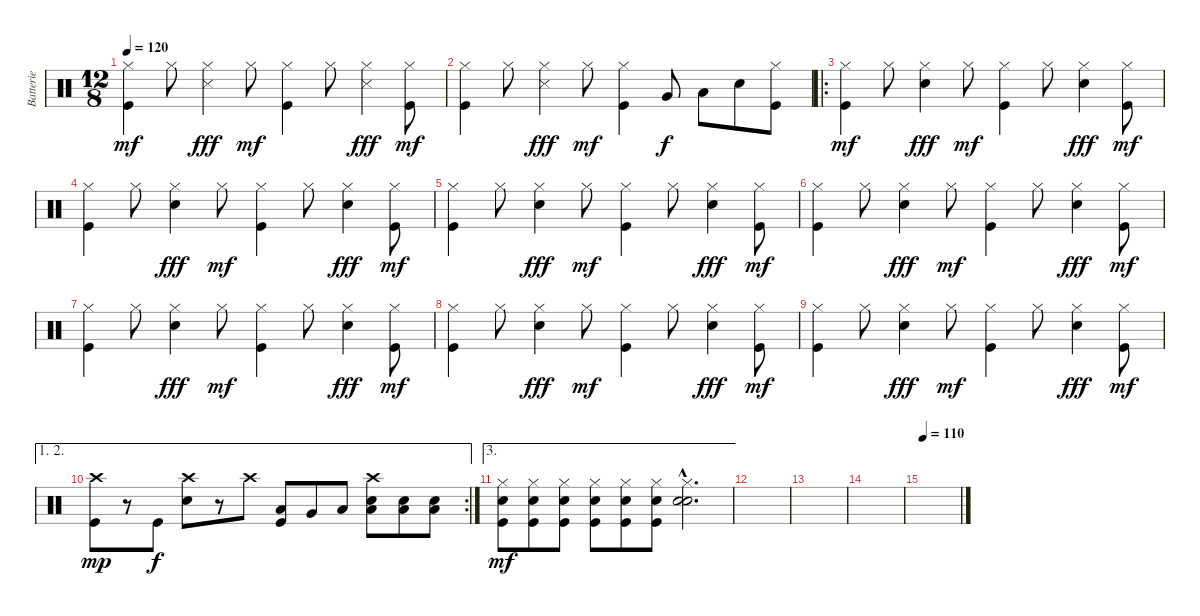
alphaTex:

\track ("Batterie" "Batterie") {instrument percussion}
\staff {score}
\articulation defaults
\ts (12 8)
\tempo 120
\clef neutral
\ks c
("Hi-Hat (closed)" "Kick (hit)").4{dy mf} "Hi-Hat (closed)".8 ("Hi-Hat (closed)" "Snare (side stick) 3").4{dy fff} "Hi-Hat (closed)".8{dy mf} ("Hi-Hat (closed)" "Kick (hit)").4 "Hi-Hat (closed)".8 ("Hi-Hat (closed)" "Snare (side stick) 3").4{dy fff} ("Hi-Hat (closed)" "Kick (hit)").8{dy mf} |
("Hi-Hat (closed)" "Kick (hit)").4 "Hi-Hat (closed)".8 ("Hi-Hat (closed)" "Snare (side stick) 3").4{dy fff} "Hi-Hat (closed)".8{dy mf} ("Hi-Hat (closed)" "Kick (hit)").4 "Very Low Tom (hit)".8{dy f} "Low Floor Tom (hit)".8 "Snare (hit) 2".8 ("Hi-Hat (closed)" "Kick (hit)").8 |
\ro
("Hi-Hat (closed)" "Kick (hit)").4{dy mf} "Hi-Hat (closed)".8 ("Hi-Hat (closed)" "Snare (hit) 2").4{dy fff} "Hi-Hat (closed)".8{dy mf} ("Hi-Hat (closed)" "Kick (hit)").4 "Hi-Hat (closed)".8 ("Hi-Hat (closed)" "Snare (hit) 2").4{dy fff} ("Hi-Hat (closed)" "Kick (hit)").8{dy mf} |
("Hi-Hat (closed)" "Kick (hit)").4 "Hi-Hat (closed)".8 ("Hi-Hat (closed)" "Snare (hit) 2").4{dy fff} "Hi-Hat (closed)".8{dy mf} ("Hi-Hat (closed)" "Kick (hit)").4 "Hi-Hat (closed)".8 ("Hi-Hat (closed)" "Snare (hit) 2").4{dy fff} ("Hi-Hat (closed)" "Kick (hit)").8{dy mf} |
("Hi-Hat (closed)" "Kick (hit)").4 "Hi-Hat (closed)".8 ("Hi-Hat (closed)" "Snare (hit) 2").4{dy fff} "Hi-Hat (closed)".8{dy mf} ("Hi-Hat (closed)" "Kick (hit)").4 "Hi-Hat (closed)".8 ("Hi-Hat (closed)" "Snare (hit) 2").4{dy fff} ("Hi-Hat (closed)" "Kick (hit)").8{dy mf} |
("Hi-Hat (closed)" "Kick (hit)").4 "Hi-Hat (closed)".8 ("Hi-Hat (closed)" "Snare (hit) 2").4{dy fff} "Hi-Hat (closed)".8{dy mf} ("Hi-Hat (closed)" "Kick (hit)").4 "Hi-Hat (closed)".8 ("Hi-Hat (closed)" "Snare (hit) 2").4{dy fff} ("Hi-Hat (closed)" "Kick (hit)").8{dy mf} |
("Hi-Hat (closed)" "Kick (hit)").4 "Hi-Hat (closed)".8 ("Hi-Hat (closed)" "Snare (hit) 2").4{dy fff} "Hi-Hat (closed)".8{dy mf} ("Hi-Hat (closed)" "Kick (hit)").4 "Hi-Hat (closed)".8 ("Hi-Hat (closed)" "Snare (hit) 2").4{dy fff} ("Hi-Hat (closed)" "Kick (hit)").8{dy mf} |
("Hi-Hat (closed)" "Kick (hit)").4 "Hi-Hat (closed)".8 ("Hi-Hat (closed)" "Snare (hit) 2").4{dy fff} "Hi-Hat (closed)".8{dy mf} ("Hi-Hat (closed)" "Kick (hit)").4 "Hi-Hat (closed)".8 ("Hi-Hat (closed)" "Snare (hit) 2").4{dy fff} ("Hi-Hat (closed)" "Kick (hit)").8{dy mf} |
("Hi-Hat (closed)" "Kick (hit)").4 "Hi-Hat (closed)".8 ("Hi-Hat (closed)" "Snare (hit) 2").4{dy fff} "Hi-Hat (closed)".8{dy mf} ("Hi-Hat (closed)" "Kick (hit)").4 "Hi-Hat (closed)".8 ("Hi-Hat (closed)" "Snare (hit) 2").4{dy fff} ("Hi-Hat (closed)" "Kick (hit)").8{dy mf} |
\ae (1 2)
\rc 2
("Crash high (hit)" "Kick (hit)").8{dy mp} r.8 "Kick (hit)".8{dy f} ("Crash high (hit)" "Snare (hit) 2").8 r.8 "Crash high (hit)".8 ("Kick (hit)" "Low Tom (hit)").8 "Very Low Tom (hit)".8 "Low Floor Tom (hit)".8 ("Crash high (hit)" "Snare (hit) 2" "Low Tom (hit)").8 ("Snare (hit) 2" "Low Tom (hit)").8 ("Snare (hit) 2" "Low Tom (hit)").8 |
\ae 3
("Hi-Hat (closed)" "Snare (hit) 2" "Kick (hit)").8{dy mf} ("Hi-Hat (closed)" "Snare (hit) 2" "Kick (hit)").8 ("Hi-Hat (closed)" "Snare (hit) 2" "Kick (hit)").8 ("Hi-Hat (closed)" "Snare (hit) 2" "Kick (hit)").8 ("Hi-Hat (closed)" "Snare (hit) 2" "Kick (hit)").8 ("Hi-Hat (closed)" "Snare (hit) 2" "Kick (hit)").8 ("Hi-Hat (closed)"{hac} "Snare (hit) 2"{hac} "Snare (hit) 2"{hac}).2{d} |
|
|
|
\tempo 110
